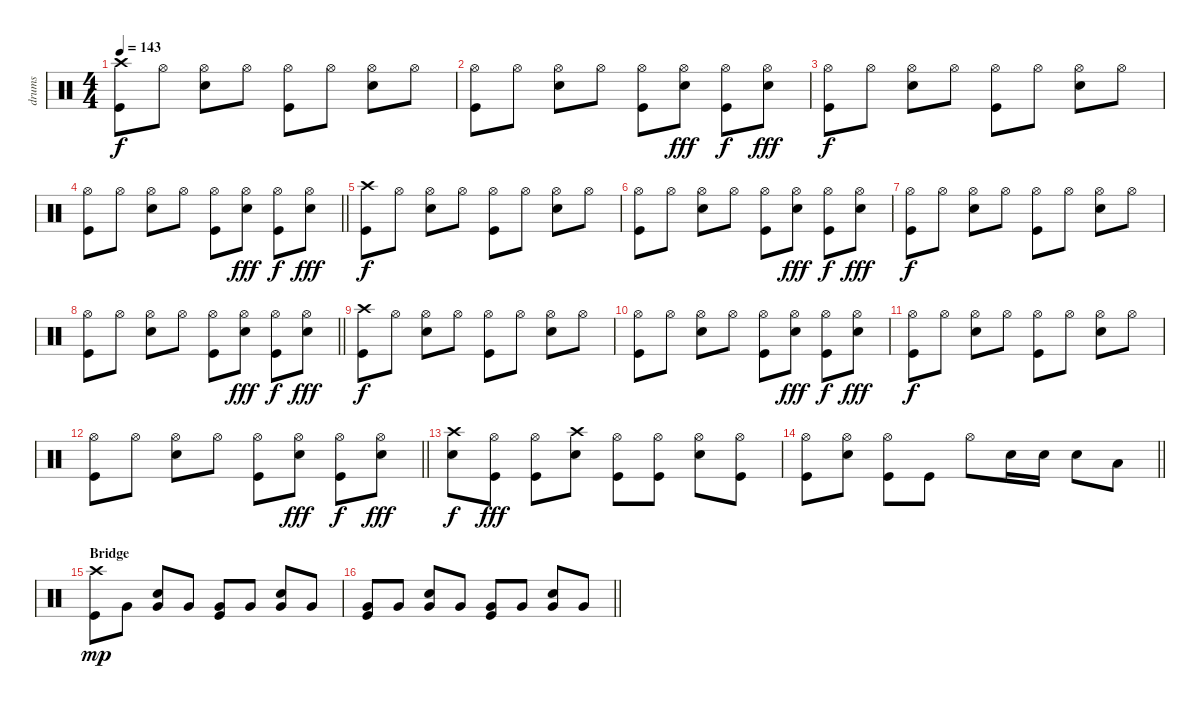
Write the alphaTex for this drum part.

\track ("drums" "drums") {instrument percussion}
\staff {score}
\articulation defaults
\ts (4 4)
\tempo 143
\clef neutral
\ks c
("Crash high (hit)" "Kick (hit)").8{dy f} "Hi-Hat (open)".8 ("Hi-Hat (open)" "Snare (hit) 2").8 "Hi-Hat (open)".8 ("Hi-Hat (open)" "Kick (hit)").8 "Hi-Hat (open)".8 ("Hi-Hat (open)" "Snare (hit) 2").8 "Hi-Hat (open)".8 |
("Hi-Hat (open)" "Kick (hit)").8 "Hi-Hat (open)".8 ("Hi-Hat (open)" "Snare (hit) 2").8 "Hi-Hat (open)".8 ("Hi-Hat (open)" "Kick (hit)").8 ("Hi-Hat (open)" "Snare (hit) 2").8{dy fff} ("Hi-Hat (open)" "Kick (hit)").8{dy f} ("Hi-Hat (open)" "Snare (hit) 2").8{dy fff} |
("Hi-Hat (open)" "Kick (hit)").8{dy f} "Hi-Hat (open)".8 ("Hi-Hat (open)" "Snare (hit) 2").8 "Hi-Hat (open)".8 ("Hi-Hat (open)" "Kick (hit)").8 "Hi-Hat (open)".8 ("Hi-Hat (open)" "Snare (hit) 2").8 "Hi-Hat (open)".8 |
\barLineRight lightlight
("Hi-Hat (open)" "Kick (hit)").8 "Hi-Hat (open)".8 ("Hi-Hat (open)" "Snare (hit) 2").8 "Hi-Hat (open)".8 ("Hi-Hat (open)" "Kick (hit)").8 ("Hi-Hat (open)" "Snare (hit) 2").8{dy fff} ("Hi-Hat (open)" "Kick (hit)").8{dy f} ("Hi-Hat (open)" "Snare (hit) 2").8{dy fff} |
("Crash high (hit)" "Kick (hit)").8{dy f} "Hi-Hat (open)".8 ("Hi-Hat (open)" "Snare (hit) 2").8 "Hi-Hat (open)".8 ("Hi-Hat (open)" "Kick (hit)").8 "Hi-Hat (open)".8 ("Hi-Hat (open)" "Snare (hit) 2").8 "Hi-Hat (open)".8 |
("Hi-Hat (open)" "Kick (hit)").8 "Hi-Hat (open)".8 ("Hi-Hat (open)" "Snare (hit) 2").8 "Hi-Hat (open)".8 ("Hi-Hat (open)" "Kick (hit)").8 ("Hi-Hat (open)" "Snare (hit) 2").8{dy fff} ("Hi-Hat (open)" "Kick (hit)").8{dy f} ("Hi-Hat (open)" "Snare (hit) 2").8{dy fff} |
("Hi-Hat (open)" "Kick (hit)").8{dy f} "Hi-Hat (open)".8 ("Hi-Hat (open)" "Snare (hit) 2").8 "Hi-Hat (open)".8 ("Hi-Hat (open)" "Kick (hit)").8 "Hi-Hat (open)".8 ("Hi-Hat (open)" "Snare (hit) 2").8 "Hi-Hat (open)".8 |
\barLineRight lightlight
("Hi-Hat (open)" "Kick (hit)").8 "Hi-Hat (open)".8 ("Hi-Hat (open)" "Snare (hit) 2").8 "Hi-Hat (open)".8 ("Hi-Hat (open)" "Kick (hit)").8 ("Hi-Hat (open)" "Snare (hit) 2").8{dy fff} ("Hi-Hat (open)" "Kick (hit)").8{dy f} ("Hi-Hat (open)" "Snare (hit) 2").8{dy fff} |
("Crash high (hit)" "Kick (hit)").8{dy f} "Hi-Hat (open)".8 ("Hi-Hat (open)" "Snare (hit) 2").8 "Hi-Hat (open)".8 ("Hi-Hat (open)" "Kick (hit)").8 "Hi-Hat (open)".8 ("Hi-Hat (open)" "Snare (hit) 2").8 "Hi-Hat (open)".8 |
("Hi-Hat (open)" "Kick (hit)").8 "Hi-Hat (open)".8 ("Hi-Hat (open)" "Snare (hit) 2").8 "Hi-Hat (open)".8 ("Hi-Hat (open)" "Kick (hit)").8 ("Hi-Hat (open)" "Snare (hit) 2").8{dy fff} ("Hi-Hat (open)" "Kick (hit)").8{dy f} ("Hi-Hat (open)" "Snare (hit) 2").8{dy fff} |
("Hi-Hat (open)" "Kick (hit)").8{dy f} "Hi-Hat (open)".8 ("Hi-Hat (open)" "Snare (hit) 2").8 "Hi-Hat (open)".8 ("Hi-Hat (open)" "Kick (hit)").8 "Hi-Hat (open)".8 ("Hi-Hat (open)" "Snare (hit) 2").8 "Hi-Hat (open)".8 |
\barLineRight lightlight
("Hi-Hat (open)" "Kick (hit)").8 "Hi-Hat (open)".8 ("Hi-Hat (open)" "Snare (hit) 2").8 "Hi-Hat (open)".8 ("Hi-Hat (open)" "Kick (hit)").8 ("Hi-Hat (open)" "Snare (hit) 2").8{dy fff} ("Hi-Hat (open)" "Kick (hit)").8{dy f} ("Hi-Hat (open)" "Snare (hit) 2").8{dy fff} |
("Crash high (hit)" "Snare (hit) 2").8{dy f} ("Kick (hit)" "Hi-Hat (open)").8{dy fff} ("Kick (hit)" "Hi-Hat (open)").8 ("Snare (hit) 2" "Crash high (hit)").8 ("Kick (hit)" "Hi-Hat (open)").8 ("Kick (hit)" "Hi-Hat (open)").8 ("Snare (hit) 2" "Hi-Hat (open)").8 ("Kick (hit)" "Hi-Hat (open)").8 |
\barLineRight lightlight
("Kick (hit)" "Hi-Hat (open)").8 ("Snare (hit) 2" "Hi-Hat (open)").8 ("Kick (hit)" "Hi-Hat (open)").8 "Kick (hit)".8 "Hi-Hat (open)".8 "Snare (hit) 2".16 "Snare (hit) 2".16 "Snare (hit) 2".8 "Low Tom (hit)".8 |
\section ("" "Bridge")
("Crash high (hit)" "Kick (hit)").8{dy mp} "Very Low Tom (hit)".8 ("Snare (hit) 2" "Very Low Tom (hit)").8 "Very Low Tom (hit)".8 ("Very Low Tom (hit)" "Kick (hit)").8 "Very Low Tom (hit)".8 ("Snare (hit) 2" "Very Low Tom (hit)").8 "Very Low Tom (hit)".8 |
\barLineRight lightlight
("Very Low Tom (hit)" "Kick (hit)").8 "Very Low Tom (hit)".8 ("Snare (hit) 2" "Very Low Tom (hit)").8 "Very Low Tom (hit)".8 ("Very Low Tom (hit)" "Kick (hit)").8 "Very Low Tom (hit)".8 ("Snare (hit) 2" "Very Low Tom (hit)").8 "Very Low Tom (hit)".8
